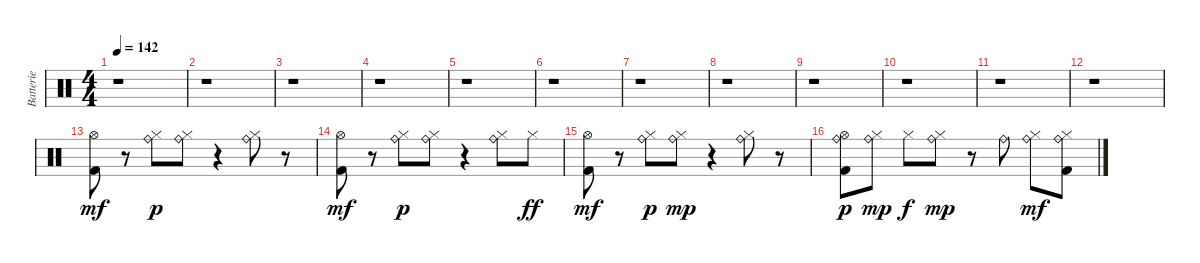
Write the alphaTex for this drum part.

\track ("Batterie" "Batterie") {instrument percussion}
\staff {score}
\articulation defaults
\ts (4 4)
\tempo 142
\clef neutral
\ks c
r.1{dy mf} |
r.1 |
r.1 |
r.1 |
r.1 |
r.1 |
r.1 |
r.1 |
r.1 |
r.1 |
r.1 |
r.1 |
("Kick (hit) 2" "Hi-Hat (open)").8 r.8 ("Hi-Hat (closed)" "Ride (bell)").8{dy p} ("Hi-Hat (closed)" "Ride (bell)").8 r.4 ("Hi-Hat (closed)" "Ride (bell)").8 r.8 |
("Kick (hit) 2" "Hi-Hat (open)").8{dy mf} r.8 ("Hi-Hat (closed)" "Ride (bell)").8{dy p} ("Hi-Hat (closed)" "Ride (bell)").8 r.4 ("Hi-Hat (closed)" "Ride (bell)").8 "Hi-Hat (closed)".8{dy ff} |
("Kick (hit) 2" "Hi-Hat (open)").8{dy mf} r.8 ("Hi-Hat (closed)" "Ride (bell)").8{dy p} ("Hi-Hat (closed)" "Ride (bell)").8{dy mp} r.4 ("Hi-Hat (closed)" "Ride (bell)").8 r.8 |
("Kick (hit) 2" "Hi-Hat (open)" "Ride (bell)").8{dy p} ("Hi-Hat (closed)" "Ride (bell)").8{dy mp} "Hi-Hat (closed)".8{dy f} ("Hi-Hat (closed)" "Ride (bell)").8{dy mp} r.8 "Ride (bell)".8 ("Hi-Hat (closed)" "Ride (bell)").8{dy mf} ("Kick (hit) 2" "Hi-Hat (closed)" "Ride (bell)").8
